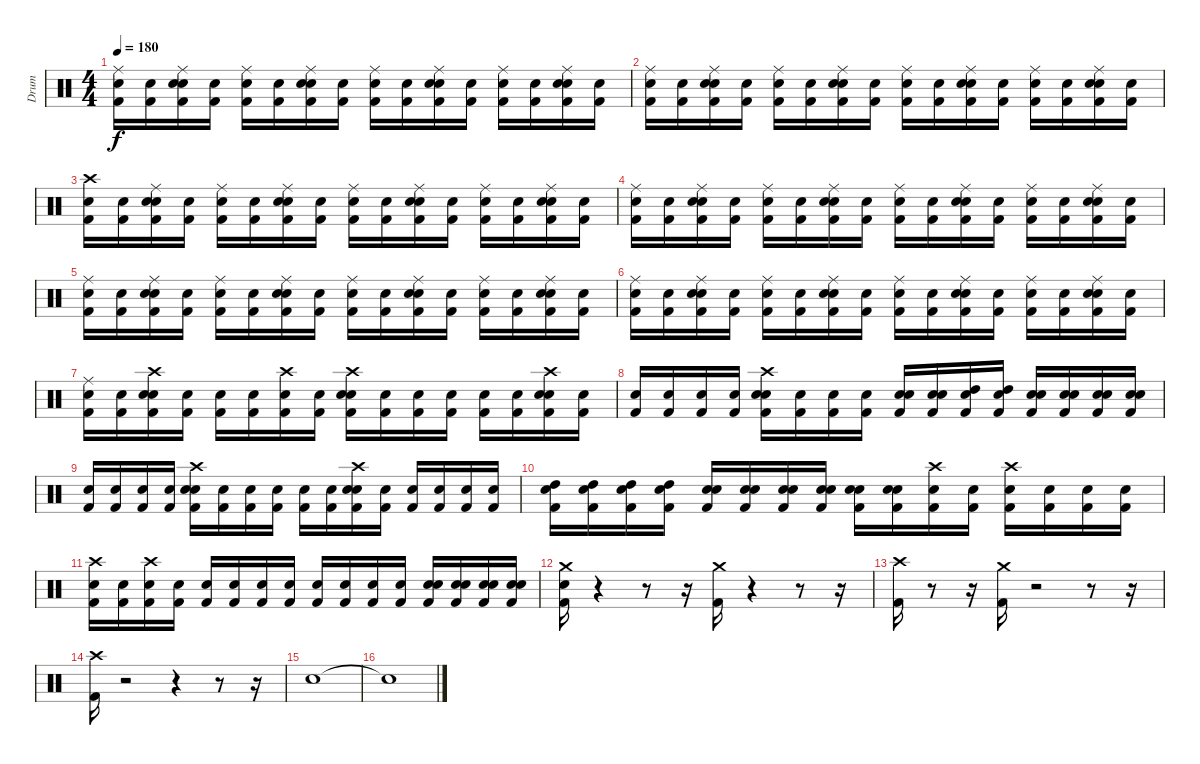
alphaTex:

\track ("Drum" "Drum") {instrument percussion}
\staff {score}
\articulation defaults
\ts (4 4)
\tempo 180
\clef neutral
\ks c
("Snare (hit)" "Kick (hit) 2" "Ride (middle)").16{dy f} ("Snare (hit)" "Kick (hit) 2").16 ("Snare (hit)" "Snare (hit) 2" "Kick (hit) 2" "Ride (middle)").16 ("Snare (hit)" "Kick (hit) 2").16 ("Snare (hit)" "Kick (hit) 2" "Ride (middle)").16 ("Snare (hit)" "Kick (hit) 2").16 ("Snare (hit)" "Snare (hit) 2" "Kick (hit) 2" "Ride (middle)").16 ("Snare (hit)" "Kick (hit) 2").16 ("Snare (hit)" "Kick (hit) 2" "Ride (middle)").16 ("Snare (hit)" "Kick (hit) 2").16 ("Snare (hit)" "Snare (hit) 2" "Kick (hit) 2" "Ride (middle)").16 ("Snare (hit)" "Kick (hit) 2").16 ("Snare (hit)" "Kick (hit) 2" "Ride (middle)").16 ("Snare (hit)" "Kick (hit) 2").16 ("Snare (hit)" "Snare (hit) 2" "Kick (hit) 2" "Ride (middle)").16 ("Snare (hit)" "Kick (hit) 2").16 |
("Snare (hit)" "Kick (hit) 2" "Ride (middle)").16 ("Snare (hit)" "Kick (hit) 2").16 ("Snare (hit)" "Snare (hit) 2" "Kick (hit) 2" "Ride (middle)").16 ("Snare (hit)" "Kick (hit) 2").16 ("Snare (hit)" "Kick (hit) 2" "Ride (middle)").16 ("Snare (hit)" "Kick (hit) 2").16 ("Snare (hit)" "Snare (hit) 2" "Kick (hit) 2" "Ride (middle)").16 ("Snare (hit)" "Kick (hit) 2").16 ("Snare (hit)" "Kick (hit) 2" "Ride (middle)").16 ("Snare (hit)" "Kick (hit) 2").16 ("Snare (hit)" "Snare (hit) 2" "Kick (hit) 2" "Ride (middle)").16 ("Snare (hit)" "Kick (hit) 2").16 ("Snare (hit)" "Kick (hit) 2" "Ride (middle)").16 ("Snare (hit)" "Kick (hit) 2").16 ("Snare (hit)" "Snare (hit) 2" "Kick (hit) 2" "Ride (middle)").16 ("Snare (hit)" "Kick (hit) 2").16 |
("Snare (hit)" "Kick (hit) 2" "Crash high (hit)").16 ("Snare (hit)" "Kick (hit) 2").16 ("Snare (hit)" "Snare (hit) 2" "Kick (hit) 2" "Ride (middle)").16 ("Snare (hit)" "Kick (hit) 2").16 ("Snare (hit)" "Kick (hit) 2" "Ride (middle)").16 ("Snare (hit)" "Kick (hit) 2").16 ("Snare (hit)" "Snare (hit) 2" "Kick (hit) 2" "Ride (middle)").16 ("Snare (hit)" "Kick (hit) 2").16 ("Snare (hit)" "Kick (hit) 2" "Ride (middle)").16 ("Snare (hit)" "Kick (hit) 2").16 ("Snare (hit)" "Snare (hit) 2" "Kick (hit) 2" "Ride (middle)").16 ("Snare (hit)" "Kick (hit) 2").16 ("Snare (hit)" "Kick (hit) 2" "Ride (middle)").16 ("Snare (hit)" "Kick (hit) 2").16 ("Snare (hit)" "Kick (hit) 2" "Ride (middle)" "Snare (hit) 2").16 ("Snare (hit)" "Kick (hit) 2").16 |
("Snare (hit)" "Kick (hit) 2" "Ride (middle)").16 ("Snare (hit)" "Kick (hit) 2").16 ("Snare (hit)" "Snare (hit) 2" "Kick (hit) 2" "Ride (middle)").16 ("Snare (hit)" "Kick (hit) 2").16 ("Snare (hit)" "Kick (hit) 2" "Ride (middle)").16 ("Snare (hit)" "Kick (hit) 2").16 ("Snare (hit)" "Snare (hit) 2" "Kick (hit) 2" "Ride (middle)").16 ("Snare (hit)" "Kick (hit) 2").16 ("Snare (hit)" "Kick (hit) 2" "Ride (middle)").16 ("Snare (hit)" "Kick (hit) 2").16 ("Snare (hit)" "Snare (hit) 2" "Kick (hit) 2" "Ride (middle)").16 ("Snare (hit)" "Kick (hit) 2").16 ("Snare (hit)" "Kick (hit) 2" "Ride (middle)").16 ("Snare (hit)" "Kick (hit) 2").16 ("Snare (hit)" "Snare (hit) 2" "Kick (hit) 2" "Ride (middle)").16 ("Snare (hit)" "Kick (hit) 2").16 |
("Snare (hit)" "Kick (hit) 2" "Ride (middle)").16 ("Snare (hit)" "Kick (hit) 2").16 ("Snare (hit)" "Snare (hit) 2" "Kick (hit) 2" "Ride (middle)").16 ("Snare (hit)" "Kick (hit) 2").16 ("Snare (hit)" "Kick (hit) 2" "Ride (middle)").16 ("Snare (hit)" "Kick (hit) 2").16 ("Snare (hit)" "Snare (hit) 2" "Kick (hit) 2" "Ride (middle)").16 ("Snare (hit)" "Kick (hit) 2").16 ("Snare (hit)" "Kick (hit) 2" "Ride (middle)").16 ("Snare (hit)" "Kick (hit) 2").16 ("Snare (hit)" "Snare (hit) 2" "Kick (hit) 2" "Ride (middle)").16 ("Snare (hit)" "Kick (hit) 2").16 ("Snare (hit)" "Kick (hit) 2" "Ride (middle)").16 ("Snare (hit)" "Kick (hit) 2").16 ("Snare (hit)" "Snare (hit) 2" "Kick (hit) 2" "Ride (middle)").16 ("Snare (hit)" "Kick (hit) 2").16 |
("Snare (hit)" "Kick (hit) 2" "Ride (middle)").16 ("Snare (hit)" "Kick (hit) 2").16 ("Snare (hit)" "Snare (hit) 2" "Kick (hit) 2" "Ride (middle)").16 ("Snare (hit)" "Kick (hit) 2").16 ("Snare (hit)" "Kick (hit) 2" "Ride (middle)").16 ("Snare (hit)" "Kick (hit) 2").16 ("Snare (hit)" "Snare (hit) 2" "Kick (hit) 2" "Ride (middle)").16 ("Snare (hit)" "Kick (hit) 2").16 ("Snare (hit)" "Kick (hit) 2" "Ride (middle)").16 ("Snare (hit)" "Kick (hit) 2").16 ("Snare (hit)" "Snare (hit) 2" "Kick (hit) 2" "Ride (middle)").16 ("Snare (hit)" "Kick (hit) 2").16 ("Snare (hit)" "Kick (hit) 2" "Ride (middle)").16 ("Snare (hit)" "Kick (hit) 2").16 ("Snare (hit)" "Snare (hit) 2" "Kick (hit) 2" "Ride (middle)").16 ("Snare (hit)" "Kick (hit) 2").16 |
("Snare (hit)" "Kick (hit) 2" "Ride (middle)").16 ("Snare (hit)" "Kick (hit) 2").16 ("Snare (hit)" "Snare (hit) 2" "Kick (hit) 2" "Crash high (hit)").16 ("Snare (hit)" "Kick (hit) 2").16 ("Snare (hit)" "Kick (hit) 2").16 ("Snare (hit)" "Kick (hit) 2").16 ("Snare (hit)" "Kick (hit) 2" "Crash high (hit)").16 ("Snare (hit)" "Kick (hit) 2").16 ("Snare (hit)" "Snare (hit) 2" "Kick (hit) 2" "Crash high (hit)").16 ("Snare (hit)" "Kick (hit) 2").16 ("Snare (hit)" "Kick (hit) 2").16 ("Snare (hit)" "Kick (hit) 2").16 ("Snare (hit)" "Kick (hit) 2").16 ("Snare (hit)" "Kick (hit) 2").16 ("Snare (hit)" "Snare (hit) 2" "Kick (hit) 2" "Crash high (hit)").16 ("Snare (hit)" "Kick (hit) 2").16 |
("Snare (hit)" "Kick (hit) 2").16 ("Snare (hit)" "Kick (hit) 2").16 ("Snare (hit)" "Kick (hit) 2").16 ("Snare (hit)" "Kick (hit) 2").16 ("Snare (hit)" "Crash high (hit)" "Snare (hit) 2" "Kick (hit) 2").16 ("Snare (hit)" "Kick (hit) 2").16 ("Snare (hit)" "Kick (hit) 2").16 ("Snare (hit)" "Kick (hit) 2").16 ("Snare (hit)" "Snare (hit) 2" "Kick (hit) 2").16 ("Snare (hit)" "Snare (hit) 2" "Kick (hit) 2").16 ("Snare (hit)" "High Tom (hit)" "Kick (hit) 2").16 ("Snare (hit)" "High Tom (hit)" "Kick (hit) 2").16 ("Snare (hit)" "Snare (hit) 2" "Kick (hit) 2").16 ("Snare (hit)" "Snare (hit) 2" "Kick (hit) 2").16 ("Snare (hit)" "Snare (hit) 2" "Kick (hit) 2").16 ("Snare (hit)" "Snare (hit) 2" "Kick (hit) 2").16 |
("Snare (hit)" "Kick (hit) 2").16 ("Snare (hit)" "Kick (hit) 2").16 ("Snare (hit)" "Kick (hit) 2").16 ("Snare (hit)" "Kick (hit) 2").16 ("Snare (hit)" "Crash high (hit)" "Snare (hit) 2" "Kick (hit) 2").16 ("Snare (hit)" "Kick (hit) 2").16 ("Snare (hit)" "Kick (hit) 2").16 ("Snare (hit)" "Kick (hit) 2").16 ("Snare (hit)" "Kick (hit) 2").16 ("Snare (hit)" "Kick (hit) 2").16 ("Snare (hit)" "Crash high (hit)" "Snare (hit) 2" "Kick (hit) 2").16 ("Snare (hit)" "Kick (hit) 2").16 ("Snare (hit)" "Kick (hit) 2").16 ("Snare (hit)" "Kick (hit) 2").16 ("Snare (hit)" "Kick (hit) 2").16 ("Snare (hit)" "Kick (hit) 2").16 |
("Snare (hit)" "High Tom (hit)" "Kick (hit) 2").16 ("Snare (hit)" "High Tom (hit)" "Kick (hit) 2").16 ("Snare (hit)" "High Tom (hit)" "Kick (hit) 2").16 ("Snare (hit)" "High Tom (hit)" "Kick (hit) 2").16 ("Snare (hit)" "Snare (hit) 2" "Kick (hit) 2").16 ("Snare (hit)" "Snare (hit) 2" "Kick (hit) 2").16 ("Snare (hit)" "Snare (hit) 2" "Kick (hit) 2").16 ("Snare (hit)" "Snare (hit) 2" "Kick (hit) 2").16 ("Snare (hit)" "Snare (hit) 2" "Kick (hit) 2").16 ("Snare (hit)" "Snare (hit) 2" "Kick (hit) 2").16 ("Snare (hit)" "Crash high (hit)" "Kick (hit) 2").16 ("Snare (hit)" "Kick (hit) 2").16 ("Snare (hit)" "Crash high (hit)" "Kick (hit) 2").16 ("Snare (hit)" "Kick (hit) 2").16 ("Snare (hit)" "Kick (hit) 2").16 ("Snare (hit)" "Kick (hit) 2").16 |
("Snare (hit)" "Crash high (hit)" "Kick (hit) 2").16 ("Snare (hit)" "Kick (hit) 2").16 ("Snare (hit)" "Crash high (hit)" "Kick (hit) 2").16 ("Snare (hit)" "Kick (hit) 2").16 ("Snare (hit)" "Kick (hit) 2").16 ("Snare (hit)" "Kick (hit) 2").16 ("Snare (hit)" "Kick (hit) 2").16 ("Snare (hit)" "Kick (hit) 2").16 ("Snare (hit)" "Kick (hit) 2").16 ("Snare (hit)" "Kick (hit) 2").16 ("Snare (hit)" "Kick (hit) 2").16 ("Snare (hit)" "Kick (hit) 2").16 ("Snare (hit)" "Snare (hit) 2" "Kick (hit) 2").16 ("Snare (hit)" "Snare (hit) 2" "Kick (hit) 2").16 ("Snare (hit)" "Snare (hit) 2" "Kick (hit) 2").16 ("Snare (hit)" "Snare (hit) 2" "Kick (hit) 2").16 |
("Snare (hit)" "Crash medium (hit)" "Kick (hit) 2").16 r.4 r.8 r.16 ("Kick (hit) 2" "Crash medium (hit)").16 r.4 r.8 r.16 |
("Kick (hit) 2" "Crash high (hit)").16 r.8 r.16 ("Crash medium (hit)" "Kick (hit) 2").16 r.2 r.8 r.16 |
("Crash high (hit)" "Kick (hit) 2").16 r.2 r.4 r.8 r.16 |
"Snare (hit)".1 |
"Snare (hit)"{t}.1
